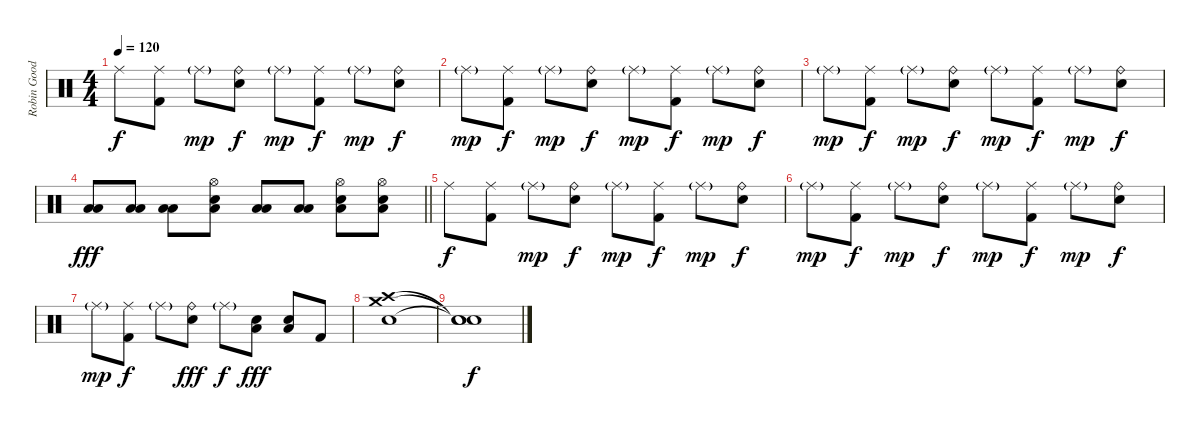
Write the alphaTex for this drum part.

\track ("Robin Goodridge: Drums" "Robin Good") {instrument percussion}
\staff {score}
\articulation defaults
\ts (4 4)
\tempo 120
\clef neutral
\ks c "Ride (middle)".8{dy f}
("Ride (middle)" "Kick (hit) 2").8 "Ride (middle)"{g}.8{dy mp} ("Ride (bell)" "Electric Snare (hit)").8{dy f} "Ride (middle)"{g}.8{dy mp} ("Ride (middle)" "Kick (hit) 2").8{dy f} "Ride (middle)"{g}.8{dy mp} ("Ride (bell)" "Electric Snare (hit)").8{dy f} |
"Ride (middle)"{g}.8{dy mp} ("Ride (middle)" "Kick (hit) 2").8{dy f} "Ride (middle)"{g}.8{dy mp} ("Ride (bell)" "Electric Snare (hit)").8{dy f} "Ride (middle)"{g}.8{dy mp} ("Ride (middle)" "Kick (hit) 2").8{dy f} "Ride (middle)"{g}.8{dy mp} ("Ride (bell)" "Electric Snare (hit)").8{dy f} |
"Ride (middle)"{g}.8{dy mp} ("Ride (middle)" "Kick (hit) 2").8{dy f} "Ride (middle)"{g}.8{dy mp} ("Ride (bell)" "Electric Snare (hit)").8{dy f} "Ride (middle)"{g}.8{dy mp} ("Ride (middle)" "Kick (hit) 2").8{dy f} "Ride (middle)"{g}.8{dy mp} ("Ride (bell)" "Electric Snare (hit)").8{dy f} |
\barLineRight lightlight
("Low Tom (hit)" "Low Floor Tom (hit)").8{dy fff} ("Low Tom (hit)" "Low Floor Tom (hit)").8 ("Low Tom (hit)" "Low Floor Tom (hit)").8 ("Hi-Hat (open)" "Electric Snare (hit)" "Low Floor Tom (hit)").8 ("Low Tom (hit)" "Low Floor Tom (hit)").8 ("Low Tom (hit)" "Low Floor Tom (hit)").8 ("Hi-Hat (open)" "Electric Snare (hit)" "Low Floor Tom (hit)").8 ("Hi-Hat (open)" "Electric Snare (hit)" "Low Floor Tom (hit)").8 |
"Ride (middle)".8{dy f} ("Ride (middle)" "Kick (hit) 2").8 "Ride (middle)"{g}.8{dy mp} ("Ride (bell)" "Electric Snare (hit)").8{dy f} "Ride (middle)"{g}.8{dy mp} ("Ride (middle)" "Kick (hit) 2").8{dy f} "Ride (middle)"{g}.8{dy mp} ("Ride (bell)" "Electric Snare (hit)").8{dy f} |
"Ride (middle)"{g}.8{dy mp} ("Ride (middle)" "Kick (hit) 2").8{dy f} "Ride (middle)"{g}.8{dy mp} ("Ride (bell)" "Electric Snare (hit)").8{dy f} "Ride (middle)"{g}.8{dy mp} ("Ride (middle)" "Kick (hit) 2").8{dy f} "Ride (middle)"{g}.8{dy mp} ("Ride (bell)" "Electric Snare (hit)").8{dy f} |
"Ride (middle)"{g}.8{dy mp} ("Ride (middle)" "Kick (hit) 2").8{dy f} "Ride (middle)"{g}.8 ("Ride (bell)" "Electric Snare (hit)").8{dy fff} "Ride (middle)"{g}.8{dy f} ("Electric Snare (hit)" "Low Floor Tom (hit)").8{dy fff} ("Electric Snare (hit)" "Low Floor Tom (hit)").8 "Kick (hit) 2".8 |
("Crash high (hit)" "Crash medium (hit)" "Electric Snare (hit)").1 |
("Snare (hit)"{t} "Snare (hit)"{t} "Snare (hit)"{t}).1{dy f}
